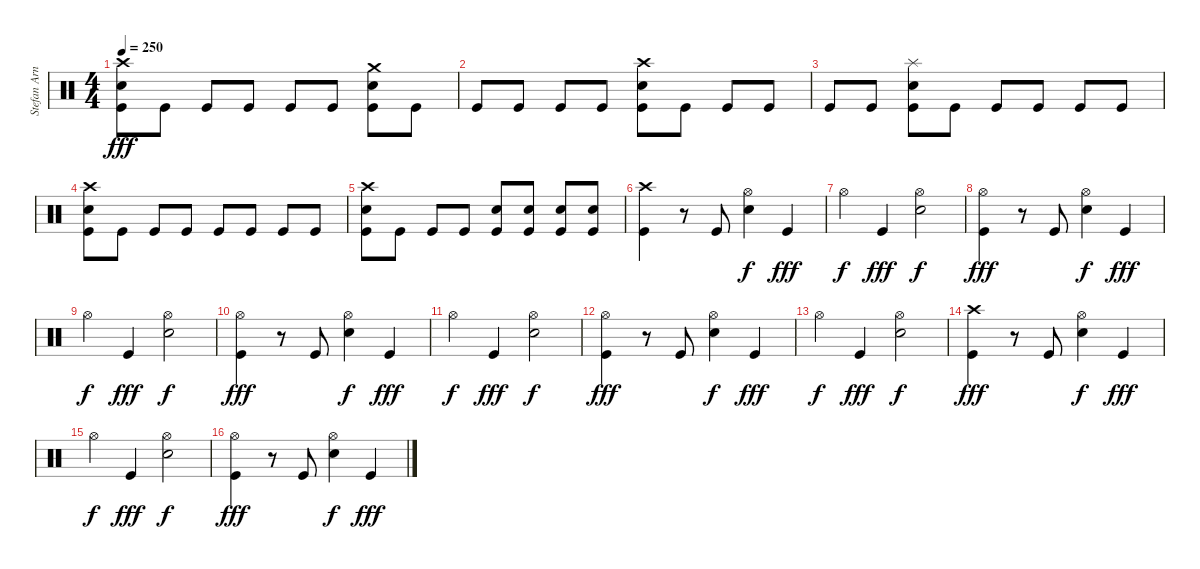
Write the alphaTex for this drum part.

\track ("Stefan Arnold (Batería)" "Stefan Arn") {instrument percussion}
\staff {score}
\articulation defaults
\ts (4 4)
\tempo 250
\clef neutral
\ks c
("Crash high (hit)" "Electric Snare (hit)" "Kick (hit)").8{dy fff} "Kick (hit)".8 "Kick (hit)".8 "Kick (hit)".8 "Kick (hit)".8 "Kick (hit)".8 ("Crash medium (hit)" "Electric Snare (hit)" "Kick (hit)").8 "Kick (hit)".8 |
"Kick (hit)".8 "Kick (hit)".8 "Kick (hit)".8 "Kick (hit)".8 ("Crash high (hit)" "Electric Snare (hit)" "Kick (hit)").8 "Kick (hit)".8 "Kick (hit)".8 "Kick (hit)".8 |
"Kick (hit)".8 "Kick (hit)".8 ("Splash (hit)" "Electric Snare (hit)" "Kick (hit)").8 "Kick (hit)".8 "Kick (hit)".8 "Kick (hit)".8 "Kick (hit)".8 "Kick (hit)".8 |
("Crash high (hit)" "Electric Snare (hit)" "Kick (hit)").8 "Kick (hit)".8 "Kick (hit)".8 "Kick (hit)".8 "Kick (hit)".8 "Kick (hit)".8 "Kick (hit)".8 "Kick (hit)".8 |
("Crash high (hit)" "Electric Snare (hit)" "Kick (hit)").8 "Kick (hit)".8 "Kick (hit)".8 "Kick (hit)".8 ("Electric Snare (hit)" "Kick (hit)").8 ("Electric Snare (hit)" "Kick (hit)").8 ("Electric Snare (hit)" "Kick (hit)").8 ("Electric Snare (hit)" "Kick (hit)").8 |
("Crash high (hit)" "Kick (hit)").4 r.8 "Kick (hit)".8 ("Hi-Hat (open)" "Electric Snare (hit)").4{dy f} "Kick (hit)".4{dy fff} |
"Hi-Hat (open)".4{dy f} "Kick (hit)".4{dy fff} ("Hi-Hat (open)" "Electric Snare (hit)").2{dy f} |
("Hi-Hat (open)" "Kick (hit)").4{dy fff} r.8 "Kick (hit)".8 ("Hi-Hat (open)" "Electric Snare (hit)").4{dy f} "Kick (hit)".4{dy fff} |
"Hi-Hat (open)".4{dy f} "Kick (hit)".4{dy fff} ("Hi-Hat (open)" "Electric Snare (hit)").2{dy f} |
("Hi-Hat (open)" "Kick (hit)").4{dy fff} r.8 "Kick (hit)".8 ("Hi-Hat (open)" "Electric Snare (hit)").4{dy f} "Kick (hit)".4{dy fff} |
"Hi-Hat (open)".4{dy f} "Kick (hit)".4{dy fff} ("Hi-Hat (open)" "Electric Snare (hit)").2{dy f} |
("Hi-Hat (open)" "Kick (hit)").4{dy fff} r.8 "Kick (hit)".8 ("Hi-Hat (open)" "Electric Snare (hit)").4{dy f} "Kick (hit)".4{dy fff} |
"Hi-Hat (open)".4{dy f} "Kick (hit)".4{dy fff} ("Hi-Hat (open)" "Electric Snare (hit)").2{dy f} |
("Crash high (hit)" "Kick (hit)").4{dy fff} r.8 "Kick (hit)".8 ("Hi-Hat (open)" "Electric Snare (hit)").4{dy f} "Kick (hit)".4{dy fff} |
"Hi-Hat (open)".4{dy f} "Kick (hit)".4{dy fff} ("Hi-Hat (open)" "Electric Snare (hit)").2{dy f} |
("Hi-Hat (open)" "Kick (hit)").4{dy fff} r.8 "Kick (hit)".8 ("Hi-Hat (open)" "Electric Snare (hit)").4{dy f} "Kick (hit)".4{dy fff}
